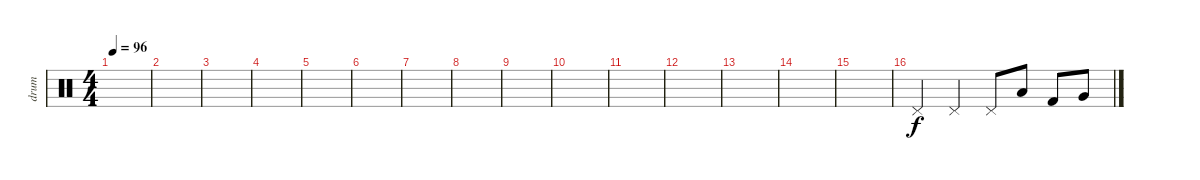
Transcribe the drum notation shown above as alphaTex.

\track ("drum" "drum") {instrument percussion}
\staff {score}
\articulation defaults
\ts (4 4)
\tempo 96
\clef neutral
\ks c
|
|
|
|
|
|
|
|
|
|
|
|
|
|
|
"Pedal Hi-Hat (hit)".4 "Pedal Hi-Hat (hit)".4 "Pedal Hi-Hat (hit)".8 "Low Tom (hit)".8 "Kick (hit) 2".8 "Very Low Tom (hit)".8
